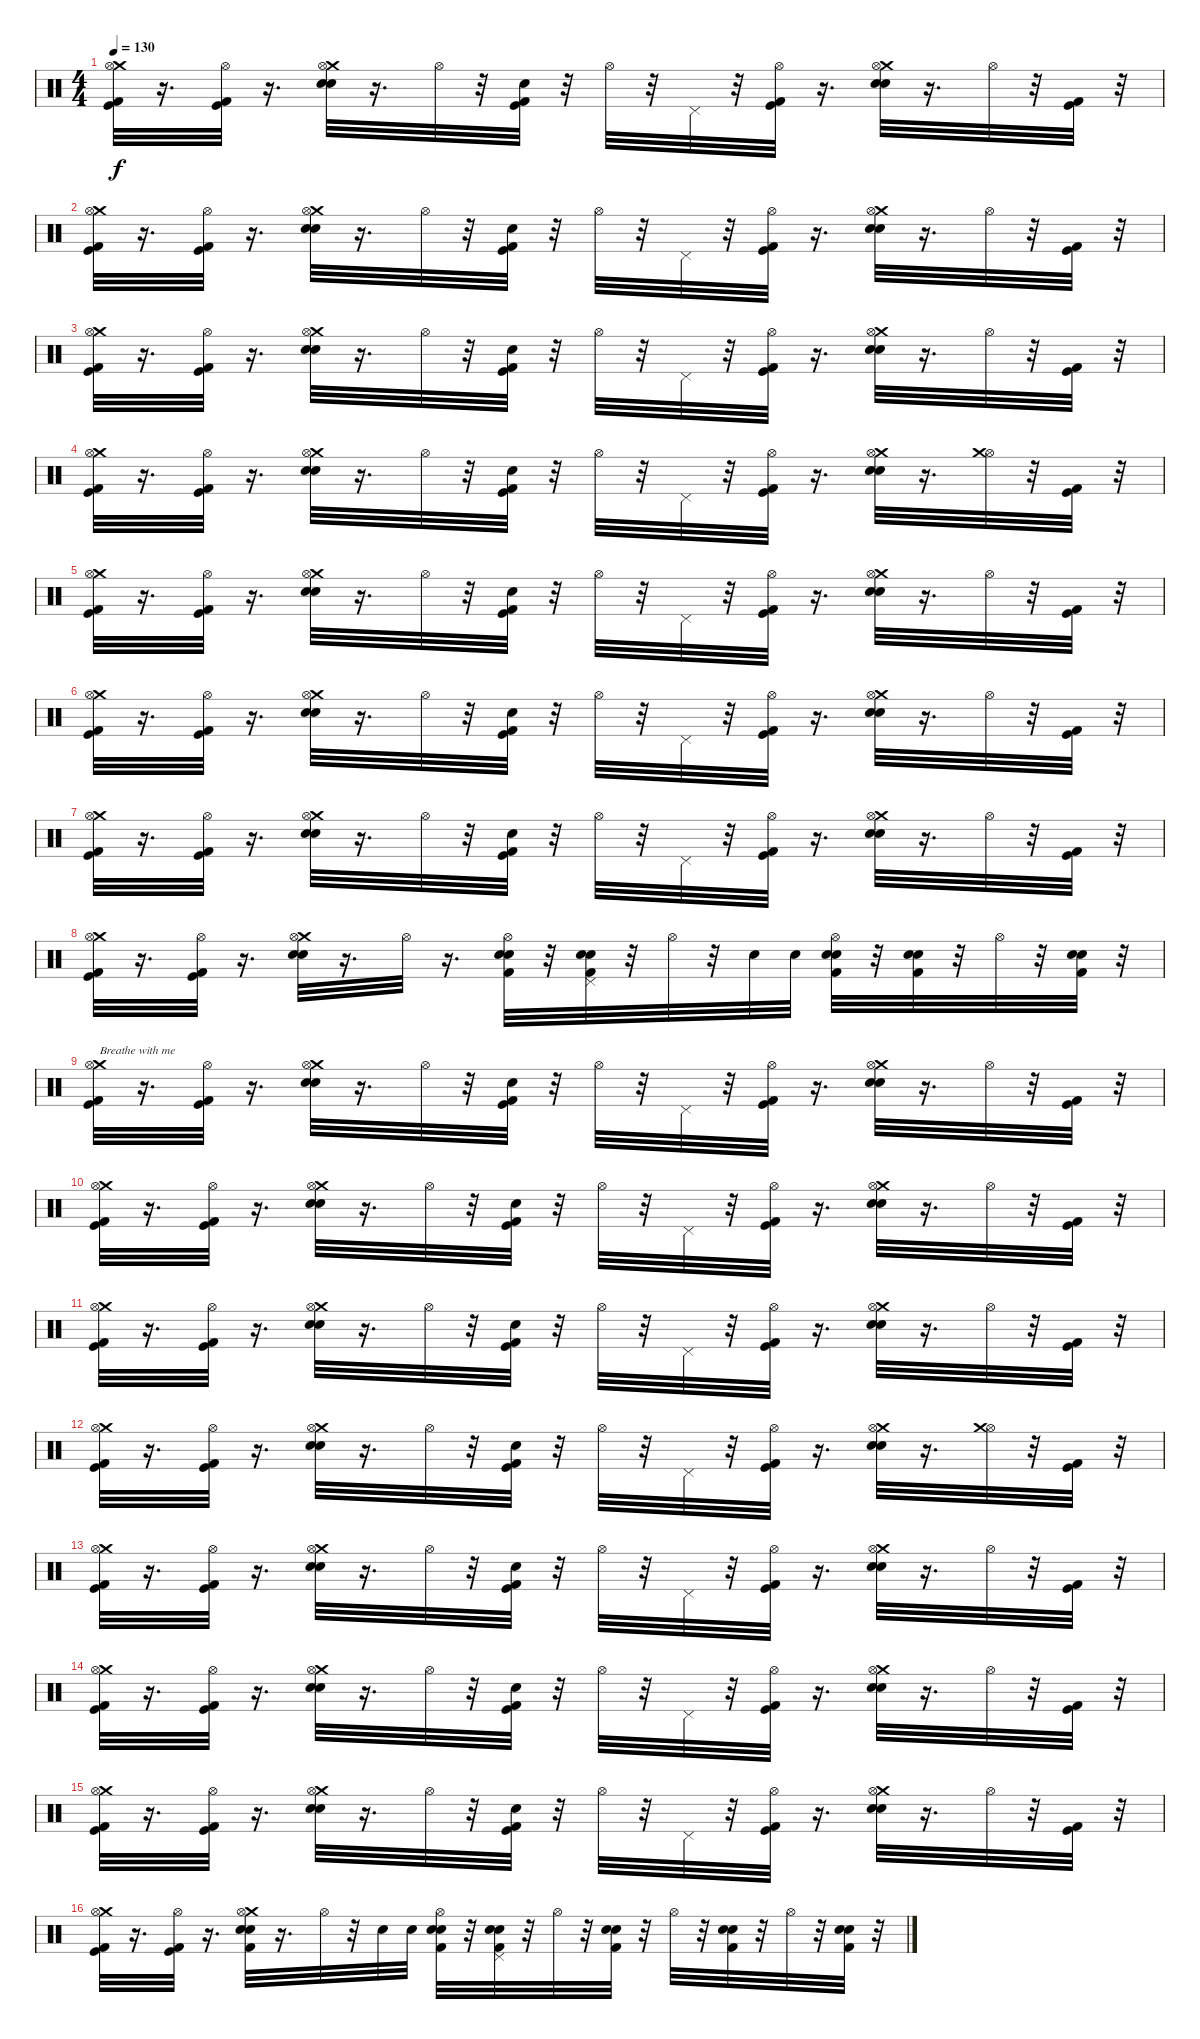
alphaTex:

\track "" {instrument percussion}
\staff {score}
\articulation defaults
\ts (4 4)
\tempo 130
\clef neutral
\ks c
("Kick (hit) 2" "Kick (hit)" "Crash medium (hit)" "Hi-Hat (open)").32{dy f} r.16{d} ("Kick (hit) 2" "Kick (hit)" "Hi-Hat (open)").32 r.16{d} ("Snare (hit) 2" "Electric Snare (hit)" "Crash medium (hit)" "Hi-Hat (open)").32 r.16{d} "Hi-Hat (open)".32 r.32 ("Kick (hit) 2" "Kick (hit)" "Electric Snare (hit)").32 r.32 "Hi-Hat (open)".32 r.32 "Pedal Hi-Hat (hit)".32 r.32 ("Kick (hit) 2" "Kick (hit)" "Hi-Hat (open)").32 r.16{d} ("Snare (hit) 2" "Electric Snare (hit)" "Crash medium (hit)" "Hi-Hat (open)").32 r.16{d} "Hi-Hat (open)".32 r.32 ("Kick (hit) 2" "Kick (hit)").32 r.32 |
("Kick (hit) 2" "Kick (hit)" "Crash medium (hit)" "Hi-Hat (open)").32 r.16{d} ("Kick (hit) 2" "Kick (hit)" "Hi-Hat (open)").32 r.16{d} ("Snare (hit) 2" "Electric Snare (hit)" "Crash medium (hit)" "Hi-Hat (open)").32 r.16{d} "Hi-Hat (open)".32 r.32 ("Kick (hit) 2" "Kick (hit)" "Electric Snare (hit)").32 r.32 "Hi-Hat (open)".32 r.32 "Pedal Hi-Hat (hit)".32 r.32 ("Kick (hit) 2" "Kick (hit)" "Hi-Hat (open)").32 r.16{d} ("Snare (hit) 2" "Electric Snare (hit)" "Crash medium (hit)" "Hi-Hat (open)").32 r.16{d} "Hi-Hat (open)".32 r.32 ("Kick (hit) 2" "Kick (hit)").32 r.32 |
("Kick (hit) 2" "Kick (hit)" "Crash medium (hit)" "Hi-Hat (open)").32 r.16{d} ("Kick (hit) 2" "Kick (hit)" "Hi-Hat (open)").32 r.16{d} ("Snare (hit) 2" "Electric Snare (hit)" "Crash medium (hit)" "Hi-Hat (open)").32 r.16{d} "Hi-Hat (open)".32 r.32 ("Kick (hit) 2" "Kick (hit)" "Electric Snare (hit)").32 r.32 "Hi-Hat (open)".32 r.32 "Pedal Hi-Hat (hit)".32 r.32 ("Kick (hit) 2" "Kick (hit)" "Hi-Hat (open)").32 r.16{d} ("Snare (hit) 2" "Electric Snare (hit)" "Crash medium (hit)" "Hi-Hat (open)").32 r.16{d} "Hi-Hat (open)".32 r.32 ("Kick (hit) 2" "Kick (hit)").32 r.32 |
("Kick (hit) 2" "Kick (hit)" "Crash medium (hit)" "Hi-Hat (open)").32 r.16{d} ("Kick (hit) 2" "Kick (hit)" "Hi-Hat (open)").32 r.16{d} ("Snare (hit) 2" "Electric Snare (hit)" "Crash medium (hit)" "Hi-Hat (open)").32 r.16{d} "Hi-Hat (open)".32 r.32 ("Kick (hit) 2" "Kick (hit)" "Electric Snare (hit)").32 r.32 "Hi-Hat (open)".32 r.32 "Pedal Hi-Hat (hit)".32 r.32 ("Kick (hit) 2" "Kick (hit)" "Hi-Hat (open)").32 r.16{d} ("Snare (hit) 2" "Electric Snare (hit)" "Crash medium (hit)" "Hi-Hat (open)").32 r.16{d} ("Hi-Hat (open)" "Crash medium (hit)").32 r.32 ("Kick (hit) 2" "Kick (hit)").32 r.32 |
("Kick (hit) 2" "Kick (hit)" "Crash medium (hit)" "Hi-Hat (open)").32 r.16{d} ("Kick (hit) 2" "Kick (hit)" "Hi-Hat (open)").32 r.16{d} ("Snare (hit) 2" "Electric Snare (hit)" "Crash medium (hit)" "Hi-Hat (open)").32 r.16{d} "Hi-Hat (open)".32 r.32 ("Kick (hit) 2" "Kick (hit)" "Electric Snare (hit)").32 r.32 "Hi-Hat (open)".32 r.32 "Pedal Hi-Hat (hit)".32 r.32 ("Kick (hit) 2" "Kick (hit)" "Hi-Hat (open)").32 r.16{d} ("Snare (hit) 2" "Electric Snare (hit)" "Crash medium (hit)" "Hi-Hat (open)").32 r.16{d} "Hi-Hat (open)".32 r.32 ("Kick (hit) 2" "Kick (hit)").32 r.32 |
("Kick (hit) 2" "Kick (hit)" "Crash medium (hit)" "Hi-Hat (open)").32 r.16{d} ("Kick (hit) 2" "Kick (hit)" "Hi-Hat (open)").32 r.16{d} ("Snare (hit) 2" "Electric Snare (hit)" "Crash medium (hit)" "Hi-Hat (open)").32 r.16{d} "Hi-Hat (open)".32 r.32 ("Kick (hit) 2" "Kick (hit)" "Electric Snare (hit)").32 r.32 "Hi-Hat (open)".32 r.32 "Pedal Hi-Hat (hit)".32 r.32 ("Kick (hit) 2" "Kick (hit)" "Hi-Hat (open)").32 r.16{d} ("Snare (hit) 2" "Electric Snare (hit)" "Crash medium (hit)" "Hi-Hat (open)").32 r.16{d} "Hi-Hat (open)".32 r.32 ("Kick (hit) 2" "Kick (hit)").32 r.32 |
("Kick (hit) 2" "Kick (hit)" "Crash medium (hit)" "Hi-Hat (open)").32 r.16{d} ("Kick (hit) 2" "Kick (hit)" "Hi-Hat (open)").32 r.16{d} ("Snare (hit) 2" "Electric Snare (hit)" "Crash medium (hit)" "Hi-Hat (open)").32 r.16{d} "Hi-Hat (open)".32 r.32 ("Kick (hit) 2" "Kick (hit)" "Electric Snare (hit)").32 r.32 "Hi-Hat (open)".32 r.32 "Pedal Hi-Hat (hit)".32 r.32 ("Kick (hit) 2" "Kick (hit)" "Hi-Hat (open)").32 r.16{d} ("Snare (hit) 2" "Electric Snare (hit)" "Crash medium (hit)" "Hi-Hat (open)").32 r.16{d} "Hi-Hat (open)".32 r.32 ("Kick (hit) 2" "Kick (hit)").32 r.32 |
("Kick (hit) 2" "Kick (hit)" "Crash medium (hit)" "Hi-Hat (open)").32 r.16{d} ("Kick (hit) 2" "Kick (hit)" "Hi-Hat (open)").32 r.16{d} ("Snare (hit) 2" "Electric Snare (hit)" "Crash medium (hit)" "Hi-Hat (open)").32 r.16{d} "Hi-Hat (open)".32 r.16{d} ("Hi-Hat (open)" "Electric Snare (hit)" "Snare (hit) 2" "Kick (hit) 2").32 r.32 ("Electric Snare (hit)" "Snare (hit) 2" "Kick (hit) 2" "Pedal Hi-Hat (hit)").32 r.32 "Hi-Hat (open)".32 r.32 "Electric Snare (hit)".32 "Electric Snare (hit)".32 ("Hi-Hat (open)" "Snare (hit) 2" "Electric Snare (hit)" "Kick (hit) 2").32 r.32 ("Electric Snare (hit)" "Snare (hit) 2" "Kick (hit) 2").32 r.32 "Hi-Hat (open)".32 r.32 ("Electric Snare (hit)" "Snare (hit) 2" "Kick (hit) 2").32 r.32 |
("Kick (hit) 2" "Kick (hit)" "Crash medium (hit)" "Hi-Hat (open)").32{txt "Breathe with me"} r.16{d} ("Kick (hit) 2" "Kick (hit)" "Hi-Hat (open)").32 r.16{d} ("Snare (hit) 2" "Electric Snare (hit)" "Crash medium (hit)" "Hi-Hat (open)").32 r.16{d} "Hi-Hat (open)".32 r.32 ("Kick (hit) 2" "Kick (hit)" "Electric Snare (hit)").32 r.32 "Hi-Hat (open)".32 r.32 "Pedal Hi-Hat (hit)".32 r.32 ("Kick (hit) 2" "Kick (hit)" "Hi-Hat (open)").32 r.16{d} ("Snare (hit) 2" "Electric Snare (hit)" "Crash medium (hit)" "Hi-Hat (open)").32 r.16{d} "Hi-Hat (open)".32 r.32 ("Kick (hit) 2" "Kick (hit)").32 r.32 |
("Kick (hit) 2" "Kick (hit)" "Crash medium (hit)" "Hi-Hat (open)").32 r.16{d} ("Kick (hit) 2" "Kick (hit)" "Hi-Hat (open)").32 r.16{d} ("Snare (hit) 2" "Electric Snare (hit)" "Crash medium (hit)" "Hi-Hat (open)").32 r.16{d} "Hi-Hat (open)".32 r.32 ("Kick (hit) 2" "Kick (hit)" "Electric Snare (hit)").32 r.32 "Hi-Hat (open)".32 r.32 "Pedal Hi-Hat (hit)".32 r.32 ("Kick (hit) 2" "Kick (hit)" "Hi-Hat (open)").32 r.16{d} ("Snare (hit) 2" "Electric Snare (hit)" "Crash medium (hit)" "Hi-Hat (open)").32 r.16{d} "Hi-Hat (open)".32 r.32 ("Kick (hit) 2" "Kick (hit)").32 r.32 |
("Kick (hit) 2" "Kick (hit)" "Crash medium (hit)" "Hi-Hat (open)").32 r.16{d} ("Kick (hit) 2" "Kick (hit)" "Hi-Hat (open)").32 r.16{d} ("Snare (hit) 2" "Electric Snare (hit)" "Crash medium (hit)" "Hi-Hat (open)").32 r.16{d} "Hi-Hat (open)".32 r.32 ("Kick (hit) 2" "Kick (hit)" "Electric Snare (hit)").32 r.32 "Hi-Hat (open)".32 r.32 "Pedal Hi-Hat (hit)".32 r.32 ("Kick (hit) 2" "Kick (hit)" "Hi-Hat (open)").32 r.16{d} ("Snare (hit) 2" "Electric Snare (hit)" "Crash medium (hit)" "Hi-Hat (open)").32 r.16{d} "Hi-Hat (open)".32 r.32 ("Kick (hit) 2" "Kick (hit)").32 r.32 |
("Kick (hit) 2" "Kick (hit)" "Crash medium (hit)" "Hi-Hat (open)").32 r.16{d} ("Kick (hit) 2" "Kick (hit)" "Hi-Hat (open)").32 r.16{d} ("Snare (hit) 2" "Electric Snare (hit)" "Crash medium (hit)" "Hi-Hat (open)").32 r.16{d} "Hi-Hat (open)".32 r.32 ("Kick (hit) 2" "Kick (hit)" "Electric Snare (hit)").32 r.32 "Hi-Hat (open)".32 r.32 "Pedal Hi-Hat (hit)".32 r.32 ("Kick (hit) 2" "Kick (hit)" "Hi-Hat (open)").32 r.16{d} ("Snare (hit) 2" "Electric Snare (hit)" "Crash medium (hit)" "Hi-Hat (open)").32 r.16{d} ("Hi-Hat (open)" "Crash medium (hit)").32 r.32 ("Kick (hit) 2" "Kick (hit)").32 r.32 |
("Kick (hit) 2" "Kick (hit)" "Crash medium (hit)" "Hi-Hat (open)").32 r.16{d} ("Kick (hit) 2" "Kick (hit)" "Hi-Hat (open)").32 r.16{d} ("Snare (hit) 2" "Electric Snare (hit)" "Crash medium (hit)" "Hi-Hat (open)").32 r.16{d} "Hi-Hat (open)".32 r.32 ("Kick (hit) 2" "Kick (hit)" "Electric Snare (hit)").32 r.32 "Hi-Hat (open)".32 r.32 "Pedal Hi-Hat (hit)".32 r.32 ("Kick (hit) 2" "Kick (hit)" "Hi-Hat (open)").32 r.16{d} ("Snare (hit) 2" "Electric Snare (hit)" "Crash medium (hit)" "Hi-Hat (open)").32 r.16{d} "Hi-Hat (open)".32 r.32 ("Kick (hit) 2" "Kick (hit)").32 r.32 |
("Kick (hit) 2" "Kick (hit)" "Crash medium (hit)" "Hi-Hat (open)").32 r.16{d} ("Kick (hit) 2" "Kick (hit)" "Hi-Hat (open)").32 r.16{d} ("Snare (hit) 2" "Electric Snare (hit)" "Crash medium (hit)" "Hi-Hat (open)").32 r.16{d} "Hi-Hat (open)".32 r.32 ("Kick (hit) 2" "Kick (hit)" "Electric Snare (hit)").32 r.32 "Hi-Hat (open)".32 r.32 "Pedal Hi-Hat (hit)".32 r.32 ("Kick (hit) 2" "Kick (hit)" "Hi-Hat (open)").32 r.16{d} ("Snare (hit) 2" "Electric Snare (hit)" "Crash medium (hit)" "Hi-Hat (open)").32 r.16{d} "Hi-Hat (open)".32 r.32 ("Kick (hit) 2" "Kick (hit)").32 r.32 |
("Kick (hit) 2" "Kick (hit)" "Crash medium (hit)" "Hi-Hat (open)").32 r.16{d} ("Kick (hit) 2" "Kick (hit)" "Hi-Hat (open)").32 r.16{d} ("Snare (hit) 2" "Electric Snare (hit)" "Crash medium (hit)" "Hi-Hat (open)").32 r.16{d} "Hi-Hat (open)".32 r.32 ("Kick (hit) 2" "Kick (hit)" "Electric Snare (hit)").32 r.32 "Hi-Hat (open)".32 r.32 "Pedal Hi-Hat (hit)".32 r.32 ("Kick (hit) 2" "Kick (hit)" "Hi-Hat (open)").32 r.16{d} ("Snare (hit) 2" "Electric Snare (hit)" "Crash medium (hit)" "Hi-Hat (open)").32 r.16{d} "Hi-Hat (open)".32 r.32 ("Kick (hit) 2" "Kick (hit)").32 r.32 |
("Kick (hit) 2" "Kick (hit)" "Crash medium (hit)" "Hi-Hat (open)").32 r.16{d} ("Kick (hit) 2" "Kick (hit)" "Hi-Hat (open)").32 r.16{d} ("Crash medium (hit)" "Hi-Hat (open)" "Electric Snare (hit)" "Snare (hit) 2" "Kick (hit) 2").32 r.16{d} "Hi-Hat (open)".32 r.32 "Electric Snare (hit)".32 "Electric Snare (hit)".32 ("Hi-Hat (open)" "Snare (hit) 2" "Electric Snare (hit)" "Kick (hit) 2").32 r.32 ("Pedal Hi-Hat (hit)" "Electric Snare (hit)" "Snare (hit) 2" "Kick (hit) 2").32 r.32 "Hi-Hat (open)".32 r.32 ("Electric Snare (hit)" "Snare (hit) 2" "Kick (hit) 2").32 r.32 "Hi-Hat (open)".32 r.32 ("Electric Snare (hit)" "Snare (hit) 2" "Kick (hit) 2").32 r.32 "Hi-Hat (open)".32 r.32 ("Electric Snare (hit)" "Snare (hit) 2" "Kick (hit) 2").32 r.32
